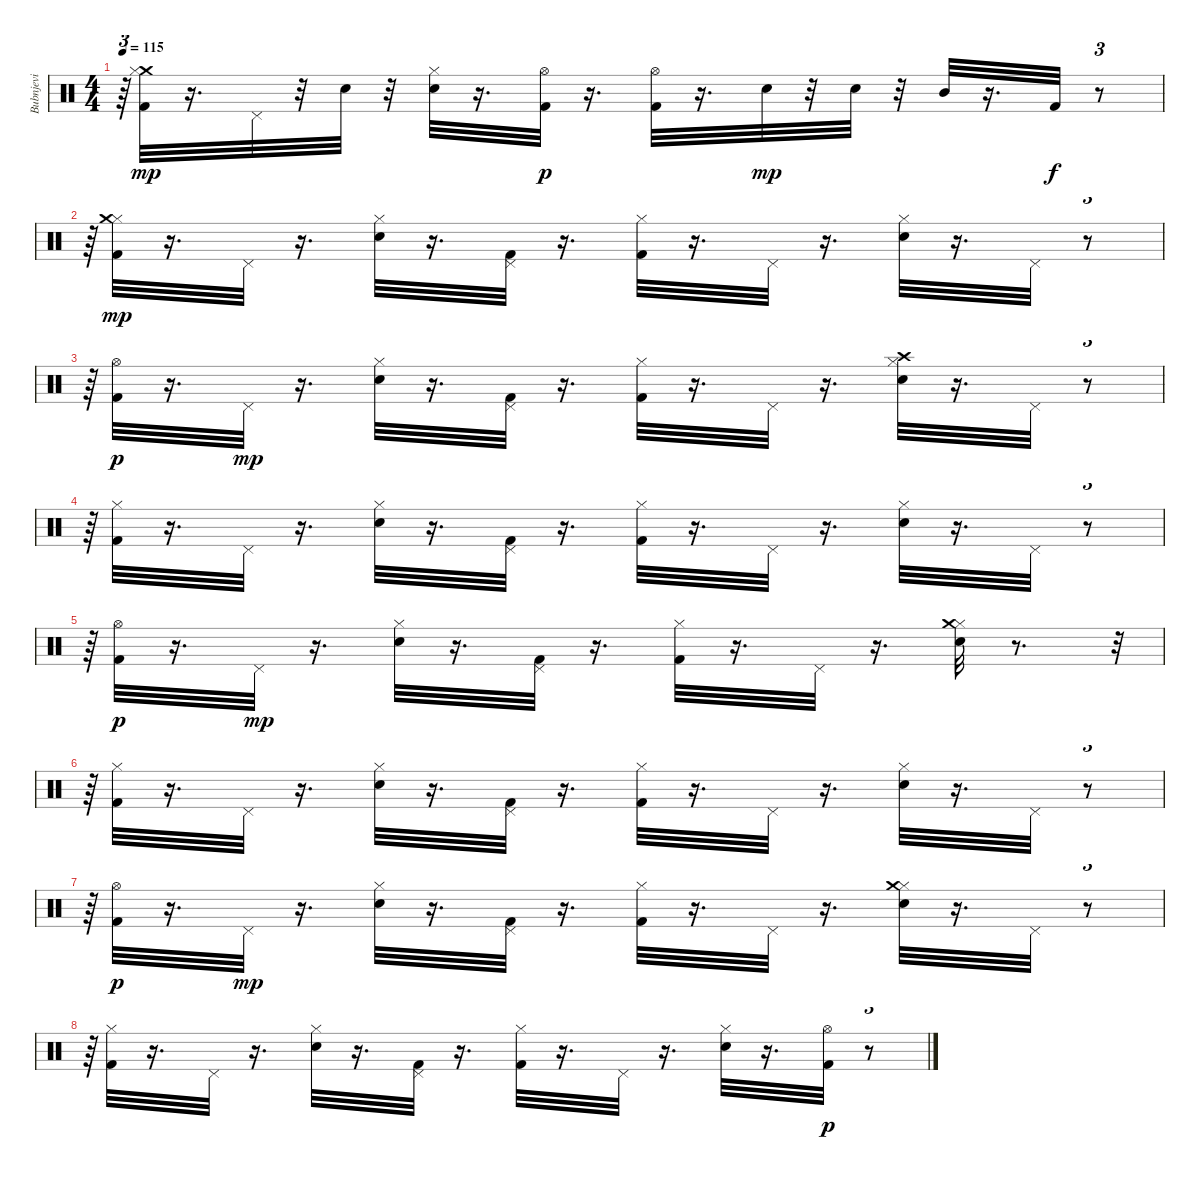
\track ("Bubnjevi" "Bubnjevi") {instrument percussion}
\staff {score}
\articulation defaults
\ts (4 4)
\tempo 115
\clef neutral
\ks c
r.64{tu (3 2) dy p} ("Crash medium (hit)" "Hi-Hat (closed)" "Kick (hit) 2").32{dy mp} r.16{d} "Pedal Hi-Hat (hit)".32 r.32 "Electric Snare (hit)".32 r.32 ("Hi-Hat (closed)" "Electric Snare (hit)").32 r.16{d} ("Hi-Hat (open)" "Kick (hit) 2").32{dy p} r.16{d} ("Hi-Hat (open)" "Kick (hit) 2").32 r.16{d} "Electric Snare (hit)".32{dy mp} r.32 "Electric Snare (hit)".32 r.32 "Mid Tom (hit)".32 r.16{d} "Kick (hit) 2".32{dy f} r.8{tu (3 2)} |
r.64{tu (3 2)} ("Hi-Hat (closed)" "Kick (hit) 2" "Crash medium (hit)").32{dy mp} r.16{d} "Pedal Hi-Hat (hit)".32 r.16{d} ("Hi-Hat (closed)" "Electric Snare (hit)").32 r.16{d} ("Pedal Hi-Hat (hit)" "Kick (hit) 2").32 r.16{d} ("Hi-Hat (closed)" "Kick (hit) 2").32 r.16{d} "Pedal Hi-Hat (hit)".32 r.16{d} ("Hi-Hat (closed)" "Electric Snare (hit)").32 r.16{d} "Pedal Hi-Hat (hit)".32 r.8{tu (3 2)} |
r.64{tu (3 2)} ("Kick (hit) 2" "Hi-Hat (open)").32{dy p} r.16{d} "Pedal Hi-Hat (hit)".32{dy mp} r.16{d} ("Electric Snare (hit)" "Hi-Hat (closed)").32 r.16{d} ("Kick (hit) 2" "Pedal Hi-Hat (hit)").32 r.16{d} ("Kick (hit) 2" "Hi-Hat (closed)").32 r.16{d} "Pedal Hi-Hat (hit)".32 r.16{d} ("Electric Snare (hit)" "Hi-Hat (closed)" "Crash high (hit)").32 r.16{d} "Pedal Hi-Hat (hit)".32 r.8{tu (3 2)} |
r.64{tu (3 2)} ("Kick (hit) 2" "Hi-Hat (closed)").32 r.16{d} "Pedal Hi-Hat (hit)".32 r.16{d} ("Electric Snare (hit)" "Hi-Hat (closed)").32 r.16{d} ("Kick (hit) 2" "Pedal Hi-Hat (hit)").32 r.16{d} ("Kick (hit) 2" "Hi-Hat (closed)").32 r.16{d} "Pedal Hi-Hat (hit)".32 r.16{d} ("Electric Snare (hit)" "Hi-Hat (closed)").32 r.16{d} "Pedal Hi-Hat (hit)".32 r.8{tu (3 2)} |
r.64{tu (3 2)} ("Kick (hit) 2" "Hi-Hat (open)").32{dy p} r.16{d} "Pedal Hi-Hat (hit)".32{dy mp} r.16{d} ("Hi-Hat (closed)" "Electric Snare (hit)").32 r.16{d} ("Pedal Hi-Hat (hit)" "Kick (hit) 2").32 r.16{d} ("Hi-Hat (closed)" "Kick (hit) 2").32 r.16{d} "Pedal Hi-Hat (hit)".32 r.16{d} ("Hi-Hat (closed)" "Electric Snare (hit)" "Crash medium (hit)").32 r.8{d} r.32{tu (3 2)} |
r.64{tu (3 2)} ("Kick (hit) 2" "Hi-Hat (closed)").32 r.16{d} "Pedal Hi-Hat (hit)".32 r.16{d} ("Electric Snare (hit)" "Hi-Hat (closed)").32 r.16{d} ("Kick (hit) 2" "Pedal Hi-Hat (hit)").32 r.16{d} ("Kick (hit) 2" "Hi-Hat (closed)").32 r.16{d} "Pedal Hi-Hat (hit)".32 r.16{d} ("Electric Snare (hit)" "Hi-Hat (closed)").32 r.16{d} "Pedal Hi-Hat (hit)".32 r.8{tu (3 2)} |
r.64{tu (3 2)} ("Kick (hit) 2" "Hi-Hat (open)").32{dy p} r.16{d} "Pedal Hi-Hat (hit)".32{dy mp} r.16{d} ("Hi-Hat (closed)" "Electric Snare (hit)").32 r.16{d} ("Pedal Hi-Hat (hit)" "Kick (hit) 2").32 r.16{d} ("Hi-Hat (closed)" "Kick (hit) 2").32 r.16{d} "Pedal Hi-Hat (hit)".32 r.16{d} ("Hi-Hat (closed)" "Electric Snare (hit)" "Crash medium (hit)").32 r.16{d} "Pedal Hi-Hat (hit)".32 r.8{tu (3 2)} |
r.64{tu (3 2)} ("Hi-Hat (closed)" "Kick (hit) 2").32 r.16{d} "Pedal Hi-Hat (hit)".32 r.16{d} ("Hi-Hat (closed)" "Electric Snare (hit)").32 r.16{d} ("Pedal Hi-Hat (hit)" "Kick (hit) 2").32 r.16{d} ("Hi-Hat (closed)" "Kick (hit) 2").32 r.16{d} "Pedal Hi-Hat (hit)".32 r.16{d} ("Hi-Hat (closed)" "Electric Snare (hit)").32 r.16{d} ("Kick (hit) 2" "Hi-Hat (open)").32{dy p} r.8{tu (3 2)}
